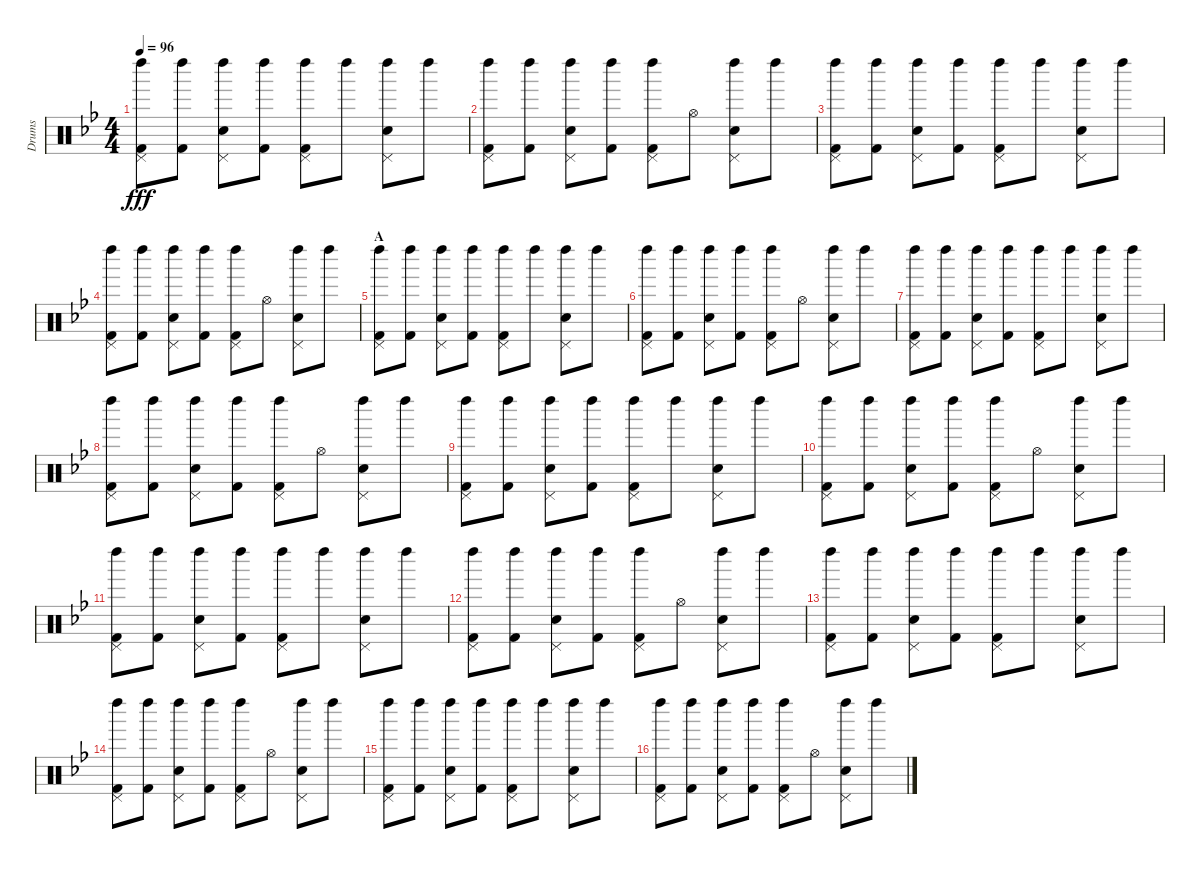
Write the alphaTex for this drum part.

\track ("Drums" "Drums") {instrument percussion}
\staff {score}
\articulation defaults
\ts (4 4)
\tempo 96
\clef neutral
\ks bb
("Left Maraca (hit)" "Pedal Hi-Hat (hit)" "Kick (hit) 2").8{dy fff} ("Left Maraca (hit)" "Kick (hit) 2").8 ("Left Maraca (hit)" "Pedal Hi-Hat (hit)" "Snare (hit) 2").8 ("Left Maraca (hit)" "Kick (hit) 2").8 ("Left Maraca (hit)" "Pedal Hi-Hat (hit)" "Kick (hit) 2").8 "Left Maraca (hit)".8 ("Left Maraca (hit)" "Pedal Hi-Hat (hit)" "Snare (hit) 2").8 "Left Maraca (hit)".8 |
("Left Maraca (hit)" "Pedal Hi-Hat (hit)" "Kick (hit) 2").8 ("Left Maraca (hit)" "Kick (hit) 2").8 ("Left Maraca (hit)" "Pedal Hi-Hat (hit)" "Snare (hit) 2").8 ("Left Maraca (hit)" "Kick (hit) 2").8 ("Left Maraca (hit)" "Pedal Hi-Hat (hit)" "Kick (hit) 2").8 "Hi-Hat (open)".8 ("Left Maraca (hit)" "Pedal Hi-Hat (hit)" "Snare (hit) 2").8 "Left Maraca (hit)".8 |
("Left Maraca (hit)" "Pedal Hi-Hat (hit)" "Kick (hit) 2").8 ("Left Maraca (hit)" "Kick (hit) 2").8 ("Left Maraca (hit)" "Pedal Hi-Hat (hit)" "Snare (hit) 2").8 ("Left Maraca (hit)" "Kick (hit) 2").8 ("Left Maraca (hit)" "Pedal Hi-Hat (hit)" "Kick (hit) 2").8 "Left Maraca (hit)".8 ("Left Maraca (hit)" "Pedal Hi-Hat (hit)" "Snare (hit) 2").8 "Left Maraca (hit)".8 |
("Left Maraca (hit)" "Pedal Hi-Hat (hit)" "Kick (hit) 2").8 ("Left Maraca (hit)" "Kick (hit) 2").8 ("Left Maraca (hit)" "Pedal Hi-Hat (hit)" "Snare (hit) 2").8 ("Left Maraca (hit)" "Kick (hit) 2").8 ("Left Maraca (hit)" "Pedal Hi-Hat (hit)" "Kick (hit) 2").8 "Hi-Hat (open)".8 ("Left Maraca (hit)" "Pedal Hi-Hat (hit)" "Snare (hit) 2").8 "Left Maraca (hit)".8 |
\section ("" "A")
("Left Maraca (hit)" "Pedal Hi-Hat (hit)" "Kick (hit) 2").8 ("Left Maraca (hit)" "Kick (hit) 2").8 ("Left Maraca (hit)" "Pedal Hi-Hat (hit)" "Snare (hit) 2").8 ("Left Maraca (hit)" "Kick (hit) 2").8 ("Left Maraca (hit)" "Pedal Hi-Hat (hit)" "Kick (hit) 2").8 "Left Maraca (hit)".8 ("Left Maraca (hit)" "Pedal Hi-Hat (hit)" "Snare (hit) 2").8 "Left Maraca (hit)".8 |
("Left Maraca (hit)" "Pedal Hi-Hat (hit)" "Kick (hit) 2").8 ("Left Maraca (hit)" "Kick (hit) 2").8 ("Left Maraca (hit)" "Pedal Hi-Hat (hit)" "Snare (hit) 2").8 ("Left Maraca (hit)" "Kick (hit) 2").8 ("Left Maraca (hit)" "Pedal Hi-Hat (hit)" "Kick (hit) 2").8 "Hi-Hat (open)".8 ("Left Maraca (hit)" "Pedal Hi-Hat (hit)" "Snare (hit) 2").8 "Left Maraca (hit)".8 |
("Left Maraca (hit)" "Pedal Hi-Hat (hit)" "Kick (hit) 2").8 ("Left Maraca (hit)" "Kick (hit) 2").8 ("Left Maraca (hit)" "Pedal Hi-Hat (hit)" "Snare (hit) 2").8 ("Left Maraca (hit)" "Kick (hit) 2").8 ("Left Maraca (hit)" "Pedal Hi-Hat (hit)" "Kick (hit) 2").8 "Left Maraca (hit)".8 ("Left Maraca (hit)" "Pedal Hi-Hat (hit)" "Snare (hit) 2").8 "Left Maraca (hit)".8 |
("Left Maraca (hit)" "Pedal Hi-Hat (hit)" "Kick (hit) 2").8 ("Left Maraca (hit)" "Kick (hit) 2").8 ("Left Maraca (hit)" "Pedal Hi-Hat (hit)" "Snare (hit) 2").8 ("Left Maraca (hit)" "Kick (hit) 2").8 ("Left Maraca (hit)" "Pedal Hi-Hat (hit)" "Kick (hit) 2").8 "Hi-Hat (open)".8 ("Left Maraca (hit)" "Pedal Hi-Hat (hit)" "Snare (hit) 2").8 "Left Maraca (hit)".8 |
("Left Maraca (hit)" "Pedal Hi-Hat (hit)" "Kick (hit) 2").8 ("Left Maraca (hit)" "Kick (hit) 2").8 ("Left Maraca (hit)" "Pedal Hi-Hat (hit)" "Snare (hit) 2").8 ("Left Maraca (hit)" "Kick (hit) 2").8 ("Left Maraca (hit)" "Pedal Hi-Hat (hit)" "Kick (hit) 2").8 "Left Maraca (hit)".8 ("Left Maraca (hit)" "Pedal Hi-Hat (hit)" "Snare (hit) 2").8 "Left Maraca (hit)".8 |
("Left Maraca (hit)" "Pedal Hi-Hat (hit)" "Kick (hit) 2").8 ("Left Maraca (hit)" "Kick (hit) 2").8 ("Left Maraca (hit)" "Pedal Hi-Hat (hit)" "Snare (hit) 2").8 ("Left Maraca (hit)" "Kick (hit) 2").8 ("Left Maraca (hit)" "Pedal Hi-Hat (hit)" "Kick (hit) 2").8 "Hi-Hat (open)".8 ("Left Maraca (hit)" "Pedal Hi-Hat (hit)" "Snare (hit) 2").8 "Left Maraca (hit)".8 |
("Left Maraca (hit)" "Pedal Hi-Hat (hit)" "Kick (hit) 2").8 ("Left Maraca (hit)" "Kick (hit) 2").8 ("Left Maraca (hit)" "Pedal Hi-Hat (hit)" "Snare (hit) 2").8 ("Left Maraca (hit)" "Kick (hit) 2").8 ("Left Maraca (hit)" "Pedal Hi-Hat (hit)" "Kick (hit) 2").8 "Left Maraca (hit)".8 ("Left Maraca (hit)" "Pedal Hi-Hat (hit)" "Snare (hit) 2").8 "Left Maraca (hit)".8 |
("Left Maraca (hit)" "Pedal Hi-Hat (hit)" "Kick (hit) 2").8 ("Left Maraca (hit)" "Kick (hit) 2").8 ("Left Maraca (hit)" "Pedal Hi-Hat (hit)" "Snare (hit) 2").8 ("Left Maraca (hit)" "Kick (hit) 2").8 ("Left Maraca (hit)" "Pedal Hi-Hat (hit)" "Kick (hit) 2").8 "Hi-Hat (open)".8 ("Left Maraca (hit)" "Pedal Hi-Hat (hit)" "Snare (hit) 2").8 "Left Maraca (hit)".8 |
("Left Maraca (hit)" "Pedal Hi-Hat (hit)" "Kick (hit) 2").8 ("Left Maraca (hit)" "Kick (hit) 2").8 ("Left Maraca (hit)" "Pedal Hi-Hat (hit)" "Snare (hit) 2").8 ("Left Maraca (hit)" "Kick (hit) 2").8 ("Left Maraca (hit)" "Pedal Hi-Hat (hit)" "Kick (hit) 2").8 "Left Maraca (hit)".8 ("Left Maraca (hit)" "Pedal Hi-Hat (hit)" "Snare (hit) 2").8 "Left Maraca (hit)".8 |
("Left Maraca (hit)" "Pedal Hi-Hat (hit)" "Kick (hit) 2").8 ("Left Maraca (hit)" "Kick (hit) 2").8 ("Left Maraca (hit)" "Pedal Hi-Hat (hit)" "Snare (hit) 2").8 ("Left Maraca (hit)" "Kick (hit) 2").8 ("Left Maraca (hit)" "Pedal Hi-Hat (hit)" "Kick (hit) 2").8 "Hi-Hat (open)".8 ("Left Maraca (hit)" "Pedal Hi-Hat (hit)" "Snare (hit) 2").8 "Left Maraca (hit)".8 |
("Left Maraca (hit)" "Pedal Hi-Hat (hit)" "Kick (hit) 2").8 ("Left Maraca (hit)" "Kick (hit) 2").8 ("Left Maraca (hit)" "Pedal Hi-Hat (hit)" "Snare (hit) 2").8 ("Left Maraca (hit)" "Kick (hit) 2").8 ("Left Maraca (hit)" "Pedal Hi-Hat (hit)" "Kick (hit) 2").8 "Left Maraca (hit)".8 ("Left Maraca (hit)" "Pedal Hi-Hat (hit)" "Snare (hit) 2").8 "Left Maraca (hit)".8 |
("Left Maraca (hit)" "Pedal Hi-Hat (hit)" "Kick (hit) 2").8 ("Left Maraca (hit)" "Kick (hit) 2").8 ("Left Maraca (hit)" "Pedal Hi-Hat (hit)" "Snare (hit) 2").8 ("Left Maraca (hit)" "Kick (hit) 2").8 ("Left Maraca (hit)" "Pedal Hi-Hat (hit)" "Kick (hit) 2").8 "Hi-Hat (open)".8 ("Left Maraca (hit)" "Pedal Hi-Hat (hit)" "Snare (hit) 2").8 "Left Maraca (hit)".8
